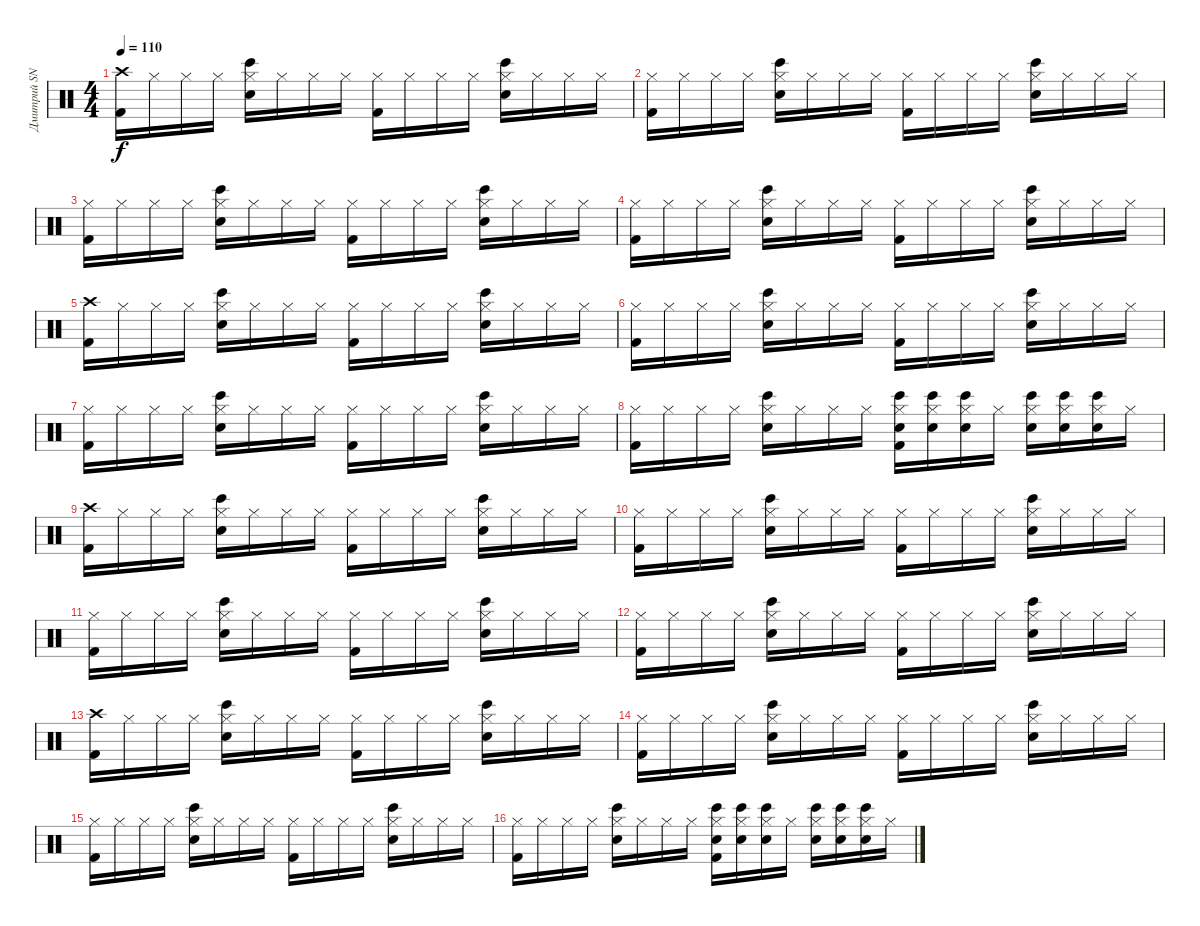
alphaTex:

\track ("Дмитрий SNAKE Хакимов" "Дмитрий SN") {instrument percussion}
\staff {score}
\articulation defaults
\ts (4 4)
\tempo 110
\clef neutral
\ks c
("Crash high (hit)" "Kick (hit) 2").16{dy f} "Hi-Hat (closed)".16 "Hi-Hat (closed)".16 "Hi-Hat (closed)".16 ("Hi-Hat (closed)" "Bongo High (hit)" "Snare (hit) 2").16 "Hi-Hat (closed)".16 "Hi-Hat (closed)".16 "Hi-Hat (closed)".16 ("Hi-Hat (closed)" "Kick (hit) 2").16 "Hi-Hat (closed)".16 "Hi-Hat (closed)".16 "Hi-Hat (closed)".16 ("Hi-Hat (closed)" "Bongo High (hit)" "Snare (hit) 2").16 "Hi-Hat (closed)".16 "Hi-Hat (closed)".16 "Hi-Hat (closed)".16 |
("Hi-Hat (closed)" "Kick (hit) 2").16 "Hi-Hat (closed)".16 "Hi-Hat (closed)".16 "Hi-Hat (closed)".16 ("Hi-Hat (closed)" "Bongo High (hit)" "Snare (hit) 2").16 "Hi-Hat (closed)".16 "Hi-Hat (closed)".16 "Hi-Hat (closed)".16 ("Hi-Hat (closed)" "Kick (hit) 2").16 "Hi-Hat (closed)".16 "Hi-Hat (closed)".16 "Hi-Hat (closed)".16 ("Hi-Hat (closed)" "Bongo High (hit)" "Snare (hit) 2").16 "Hi-Hat (closed)".16 "Hi-Hat (closed)".16 "Hi-Hat (closed)".16 |
("Hi-Hat (closed)" "Kick (hit) 2").16 "Hi-Hat (closed)".16 "Hi-Hat (closed)".16 "Hi-Hat (closed)".16 ("Hi-Hat (closed)" "Bongo High (hit)" "Snare (hit) 2").16 "Hi-Hat (closed)".16 "Hi-Hat (closed)".16 "Hi-Hat (closed)".16 ("Hi-Hat (closed)" "Kick (hit) 2").16 "Hi-Hat (closed)".16 "Hi-Hat (closed)".16 "Hi-Hat (closed)".16 ("Hi-Hat (closed)" "Bongo High (hit)" "Snare (hit) 2").16 "Hi-Hat (closed)".16 "Hi-Hat (closed)".16 "Hi-Hat (closed)".16 |
("Hi-Hat (closed)" "Kick (hit) 2").16 "Hi-Hat (closed)".16 "Hi-Hat (closed)".16 "Hi-Hat (closed)".16 ("Hi-Hat (closed)" "Bongo High (hit)" "Snare (hit) 2").16 "Hi-Hat (closed)".16 "Hi-Hat (closed)".16 "Hi-Hat (closed)".16 ("Hi-Hat (closed)" "Kick (hit) 2").16 "Hi-Hat (closed)".16 "Hi-Hat (closed)".16 "Hi-Hat (closed)".16 ("Hi-Hat (closed)" "Bongo High (hit)" "Snare (hit) 2").16 "Hi-Hat (closed)".16 "Hi-Hat (closed)".16 "Hi-Hat (closed)".16 |
("Crash high (hit)" "Kick (hit) 2").16 "Hi-Hat (closed)".16 "Hi-Hat (closed)".16 "Hi-Hat (closed)".16 ("Hi-Hat (closed)" "Bongo High (hit)" "Snare (hit) 2").16 "Hi-Hat (closed)".16 "Hi-Hat (closed)".16 "Hi-Hat (closed)".16 ("Hi-Hat (closed)" "Kick (hit) 2").16 "Hi-Hat (closed)".16 "Hi-Hat (closed)".16 "Hi-Hat (closed)".16 ("Hi-Hat (closed)" "Bongo High (hit)" "Snare (hit) 2").16 "Hi-Hat (closed)".16 "Hi-Hat (closed)".16 "Hi-Hat (closed)".16 |
("Hi-Hat (closed)" "Kick (hit) 2").16 "Hi-Hat (closed)".16 "Hi-Hat (closed)".16 "Hi-Hat (closed)".16 ("Hi-Hat (closed)" "Bongo High (hit)" "Snare (hit) 2").16 "Hi-Hat (closed)".16 "Hi-Hat (closed)".16 "Hi-Hat (closed)".16 ("Hi-Hat (closed)" "Kick (hit) 2").16 "Hi-Hat (closed)".16 "Hi-Hat (closed)".16 "Hi-Hat (closed)".16 ("Hi-Hat (closed)" "Bongo High (hit)" "Snare (hit) 2").16 "Hi-Hat (closed)".16 "Hi-Hat (closed)".16 "Hi-Hat (closed)".16 |
("Hi-Hat (closed)" "Kick (hit) 2").16 "Hi-Hat (closed)".16 "Hi-Hat (closed)".16 "Hi-Hat (closed)".16 ("Hi-Hat (closed)" "Bongo High (hit)" "Snare (hit) 2").16 "Hi-Hat (closed)".16 "Hi-Hat (closed)".16 "Hi-Hat (closed)".16 ("Hi-Hat (closed)" "Kick (hit) 2").16 "Hi-Hat (closed)".16 "Hi-Hat (closed)".16 "Hi-Hat (closed)".16 ("Hi-Hat (closed)" "Bongo High (hit)" "Snare (hit) 2").16 "Hi-Hat (closed)".16 "Hi-Hat (closed)".16 "Hi-Hat (closed)".16 |
("Hi-Hat (closed)" "Kick (hit) 2").16 "Hi-Hat (closed)".16 "Hi-Hat (closed)".16 "Hi-Hat (closed)".16 ("Hi-Hat (closed)" "Bongo High (hit)" "Snare (hit) 2").16 "Hi-Hat (closed)".16 "Hi-Hat (closed)".16 "Hi-Hat (closed)".16 ("Hi-Hat (closed)" "Bongo High (hit)" "Snare (hit) 2" "Kick (hit) 2").16 ("Hi-Hat (closed)" "Bongo High (hit)" "Snare (hit) 2").16 ("Hi-Hat (closed)" "Bongo High (hit)" "Snare (hit) 2").16 "Hi-Hat (closed)".16 ("Hi-Hat (closed)" "Bongo High (hit)" "Snare (hit) 2").16 ("Hi-Hat (closed)" "Bongo High (hit)" "Snare (hit) 2").16 ("Hi-Hat (closed)" "Bongo High (hit)" "Snare (hit) 2").16 "Hi-Hat (closed)".16 |
("Crash high (hit)" "Kick (hit) 2").16 "Hi-Hat (closed)".16 "Hi-Hat (closed)".16 "Hi-Hat (closed)".16 ("Hi-Hat (closed)" "Bongo High (hit)" "Snare (hit) 2").16 "Hi-Hat (closed)".16 "Hi-Hat (closed)".16 "Hi-Hat (closed)".16 ("Hi-Hat (closed)" "Kick (hit) 2").16 "Hi-Hat (closed)".16 "Hi-Hat (closed)".16 "Hi-Hat (closed)".16 ("Hi-Hat (closed)" "Bongo High (hit)" "Snare (hit) 2").16 "Hi-Hat (closed)".16 "Hi-Hat (closed)".16 "Hi-Hat (closed)".16 |
("Hi-Hat (closed)" "Kick (hit) 2").16 "Hi-Hat (closed)".16 "Hi-Hat (closed)".16 "Hi-Hat (closed)".16 ("Hi-Hat (closed)" "Bongo High (hit)" "Snare (hit) 2").16 "Hi-Hat (closed)".16 "Hi-Hat (closed)".16 "Hi-Hat (closed)".16 ("Hi-Hat (closed)" "Kick (hit) 2").16 "Hi-Hat (closed)".16 "Hi-Hat (closed)".16 "Hi-Hat (closed)".16 ("Hi-Hat (closed)" "Bongo High (hit)" "Snare (hit) 2").16 "Hi-Hat (closed)".16 "Hi-Hat (closed)".16 "Hi-Hat (closed)".16 |
("Hi-Hat (closed)" "Kick (hit) 2").16 "Hi-Hat (closed)".16 "Hi-Hat (closed)".16 "Hi-Hat (closed)".16 ("Hi-Hat (closed)" "Bongo High (hit)" "Snare (hit) 2").16 "Hi-Hat (closed)".16 "Hi-Hat (closed)".16 "Hi-Hat (closed)".16 ("Hi-Hat (closed)" "Kick (hit) 2").16 "Hi-Hat (closed)".16 "Hi-Hat (closed)".16 "Hi-Hat (closed)".16 ("Hi-Hat (closed)" "Bongo High (hit)" "Snare (hit) 2").16 "Hi-Hat (closed)".16 "Hi-Hat (closed)".16 "Hi-Hat (closed)".16 |
("Hi-Hat (closed)" "Kick (hit) 2").16 "Hi-Hat (closed)".16 "Hi-Hat (closed)".16 "Hi-Hat (closed)".16 ("Hi-Hat (closed)" "Bongo High (hit)" "Snare (hit) 2").16 "Hi-Hat (closed)".16 "Hi-Hat (closed)".16 "Hi-Hat (closed)".16 ("Hi-Hat (closed)" "Kick (hit) 2").16 "Hi-Hat (closed)".16 "Hi-Hat (closed)".16 "Hi-Hat (closed)".16 ("Hi-Hat (closed)" "Bongo High (hit)" "Snare (hit) 2").16 "Hi-Hat (closed)".16 "Hi-Hat (closed)".16 "Hi-Hat (closed)".16 |
("Crash high (hit)" "Kick (hit) 2").16 "Hi-Hat (closed)".16 "Hi-Hat (closed)".16 "Hi-Hat (closed)".16 ("Hi-Hat (closed)" "Bongo High (hit)" "Snare (hit) 2").16 "Hi-Hat (closed)".16 "Hi-Hat (closed)".16 "Hi-Hat (closed)".16 ("Hi-Hat (closed)" "Kick (hit) 2").16 "Hi-Hat (closed)".16 "Hi-Hat (closed)".16 "Hi-Hat (closed)".16 ("Hi-Hat (closed)" "Bongo High (hit)" "Snare (hit) 2").16 "Hi-Hat (closed)".16 "Hi-Hat (closed)".16 "Hi-Hat (closed)".16 |
("Hi-Hat (closed)" "Kick (hit) 2").16 "Hi-Hat (closed)".16 "Hi-Hat (closed)".16 "Hi-Hat (closed)".16 ("Hi-Hat (closed)" "Bongo High (hit)" "Snare (hit) 2").16 "Hi-Hat (closed)".16 "Hi-Hat (closed)".16 "Hi-Hat (closed)".16 ("Hi-Hat (closed)" "Kick (hit) 2").16 "Hi-Hat (closed)".16 "Hi-Hat (closed)".16 "Hi-Hat (closed)".16 ("Hi-Hat (closed)" "Bongo High (hit)" "Snare (hit) 2").16 "Hi-Hat (closed)".16 "Hi-Hat (closed)".16 "Hi-Hat (closed)".16 |
("Hi-Hat (closed)" "Kick (hit) 2").16 "Hi-Hat (closed)".16 "Hi-Hat (closed)".16 "Hi-Hat (closed)".16 ("Hi-Hat (closed)" "Bongo High (hit)" "Snare (hit) 2").16 "Hi-Hat (closed)".16 "Hi-Hat (closed)".16 "Hi-Hat (closed)".16 ("Hi-Hat (closed)" "Kick (hit) 2").16 "Hi-Hat (closed)".16 "Hi-Hat (closed)".16 "Hi-Hat (closed)".16 ("Hi-Hat (closed)" "Bongo High (hit)" "Snare (hit) 2").16 "Hi-Hat (closed)".16 "Hi-Hat (closed)".16 "Hi-Hat (closed)".16 |
("Hi-Hat (closed)" "Kick (hit) 2").16 "Hi-Hat (closed)".16 "Hi-Hat (closed)".16 "Hi-Hat (closed)".16 ("Hi-Hat (closed)" "Bongo High (hit)" "Snare (hit) 2").16 "Hi-Hat (closed)".16 "Hi-Hat (closed)".16 "Hi-Hat (closed)".16 ("Hi-Hat (closed)" "Bongo High (hit)" "Snare (hit) 2" "Kick (hit) 2").16 ("Hi-Hat (closed)" "Bongo High (hit)" "Snare (hit) 2").16 ("Hi-Hat (closed)" "Bongo High (hit)" "Snare (hit) 2").16 "Hi-Hat (closed)".16 ("Hi-Hat (closed)" "Bongo High (hit)" "Snare (hit) 2").16 ("Hi-Hat (closed)" "Bongo High (hit)" "Snare (hit) 2").16 ("Hi-Hat (closed)" "Bongo High (hit)" "Snare (hit) 2").16 "Hi-Hat (closed)".16
